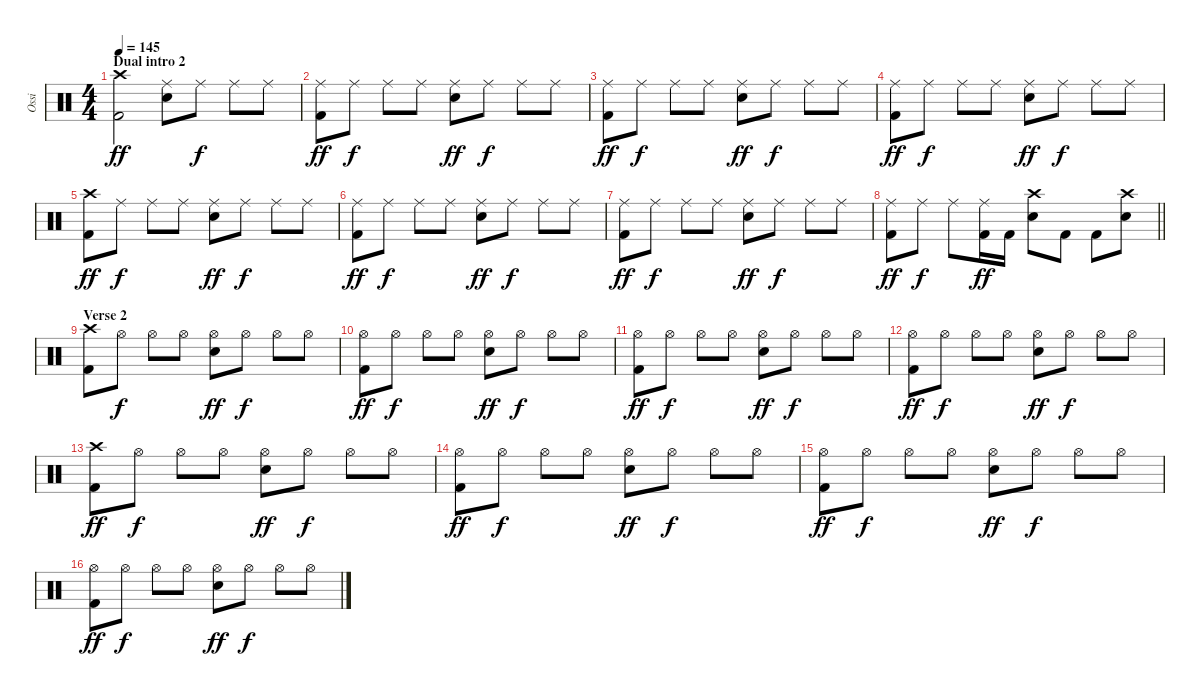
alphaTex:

\track ("Ossi" "Ossi") {instrument percussion}
\staff {score}
\articulation defaults
\ts (4 4)
\section ("" "Dual intro 2")
\tempo 145
\clef neutral
\ks c
("Crash high (hit)" "Kick (hit) 2").2{dy ff} ("Ride (middle)" "Electric Snare (hit)").8 "Ride (middle)".8{dy f} "Ride (middle)".8 "Ride (middle)".8 |
("Ride (middle)" "Kick (hit) 2").8{dy ff} "Ride (middle)".8{dy f} "Ride (middle)".8 "Ride (middle)".8 ("Ride (middle)" "Electric Snare (hit)").8{dy ff} "Ride (middle)".8{dy f} "Ride (middle)".8 "Ride (middle)".8 |
("Ride (middle)" "Kick (hit) 2").8{dy ff} "Ride (middle)".8{dy f} "Ride (middle)".8 "Ride (middle)".8 ("Ride (middle)" "Electric Snare (hit)").8{dy ff} "Ride (middle)".8{dy f} "Ride (middle)".8 "Ride (middle)".8 |
("Ride (middle)" "Kick (hit) 2").8{dy ff} "Ride (middle)".8{dy f} "Ride (middle)".8 "Ride (middle)".8 ("Ride (middle)" "Electric Snare (hit)").8{dy ff} "Ride (middle)".8{dy f} "Ride (middle)".8 "Ride (middle)".8 |
("Crash high (hit)" "Kick (hit) 2").8{dy ff} "Ride (middle)".8{dy f} "Ride (middle)".8 "Ride (middle)".8 ("Ride (middle)" "Electric Snare (hit)").8{dy ff} "Ride (middle)".8{dy f} "Ride (middle)".8 "Ride (middle)".8 |
("Ride (middle)" "Kick (hit) 2").8{dy ff} "Ride (middle)".8{dy f} "Ride (middle)".8 "Ride (middle)".8 ("Ride (middle)" "Electric Snare (hit)").8{dy ff} "Ride (middle)".8{dy f} "Ride (middle)".8 "Ride (middle)".8 |
("Ride (middle)" "Kick (hit) 2").8{dy ff} "Ride (middle)".8{dy f} "Ride (middle)".8 "Ride (middle)".8 ("Ride (middle)" "Electric Snare (hit)").8{dy ff} "Ride (middle)".8{dy f} "Ride (middle)".8 "Ride (middle)".8 |
\barLineRight lightlight
("Ride (middle)" "Kick (hit) 2").8{dy ff} "Ride (middle)".8{dy f} "Ride (middle)".8 ("Ride (middle)" "Kick (hit) 2").16{dy ff} "Kick (hit) 2".16 ("Crash high (hit)" "Electric Snare (hit)").8 "Kick (hit) 2".8 "Kick (hit) 2".8 ("Crash high (hit)" "Electric Snare (hit)").8 |
\section ("" "Verse 2")
("Crash high (hit)" "Kick (hit) 2").8 "Hi-Hat (open)".8{dy f} "Hi-Hat (open)".8 "Hi-Hat (open)".8 ("Hi-Hat (open)" "Electric Snare (hit)").8{dy ff} "Hi-Hat (open)".8{dy f} "Hi-Hat (open)".8 "Hi-Hat (open)".8 |
("Hi-Hat (open)" "Kick (hit) 2").8{dy ff} "Hi-Hat (open)".8{dy f} "Hi-Hat (open)".8 "Hi-Hat (open)".8 ("Hi-Hat (open)" "Electric Snare (hit)").8{dy ff} "Hi-Hat (open)".8{dy f} "Hi-Hat (open)".8 "Hi-Hat (open)".8 |
("Hi-Hat (open)" "Kick (hit) 2").8{dy ff} "Hi-Hat (open)".8{dy f} "Hi-Hat (open)".8 "Hi-Hat (open)".8 ("Hi-Hat (open)" "Electric Snare (hit)").8{dy ff} "Hi-Hat (open)".8{dy f} "Hi-Hat (open)".8 "Hi-Hat (open)".8 |
("Hi-Hat (open)" "Kick (hit) 2").8{dy ff} "Hi-Hat (open)".8{dy f} "Hi-Hat (open)".8 "Hi-Hat (open)".8 ("Hi-Hat (open)" "Electric Snare (hit)").8{dy ff} "Hi-Hat (open)".8{dy f} "Hi-Hat (open)".8 "Hi-Hat (open)".8 |
("Crash high (hit)" "Kick (hit) 2").8{dy ff} "Hi-Hat (open)".8{dy f} "Hi-Hat (open)".8 "Hi-Hat (open)".8 ("Hi-Hat (open)" "Electric Snare (hit)").8{dy ff} "Hi-Hat (open)".8{dy f} "Hi-Hat (open)".8 "Hi-Hat (open)".8 |
("Hi-Hat (open)" "Kick (hit) 2").8{dy ff} "Hi-Hat (open)".8{dy f} "Hi-Hat (open)".8 "Hi-Hat (open)".8 ("Hi-Hat (open)" "Electric Snare (hit)").8{dy ff} "Hi-Hat (open)".8{dy f} "Hi-Hat (open)".8 "Hi-Hat (open)".8 |
("Hi-Hat (open)" "Kick (hit) 2").8{dy ff} "Hi-Hat (open)".8{dy f} "Hi-Hat (open)".8 "Hi-Hat (open)".8 ("Hi-Hat (open)" "Electric Snare (hit)").8{dy ff} "Hi-Hat (open)".8{dy f} "Hi-Hat (open)".8 "Hi-Hat (open)".8 |
("Hi-Hat (open)" "Kick (hit) 2").8{dy ff} "Hi-Hat (open)".8{dy f} "Hi-Hat (open)".8 "Hi-Hat (open)".8 ("Hi-Hat (open)" "Electric Snare (hit)").8{dy ff} "Hi-Hat (open)".8{dy f} "Hi-Hat (open)".8 "Hi-Hat (open)".8
